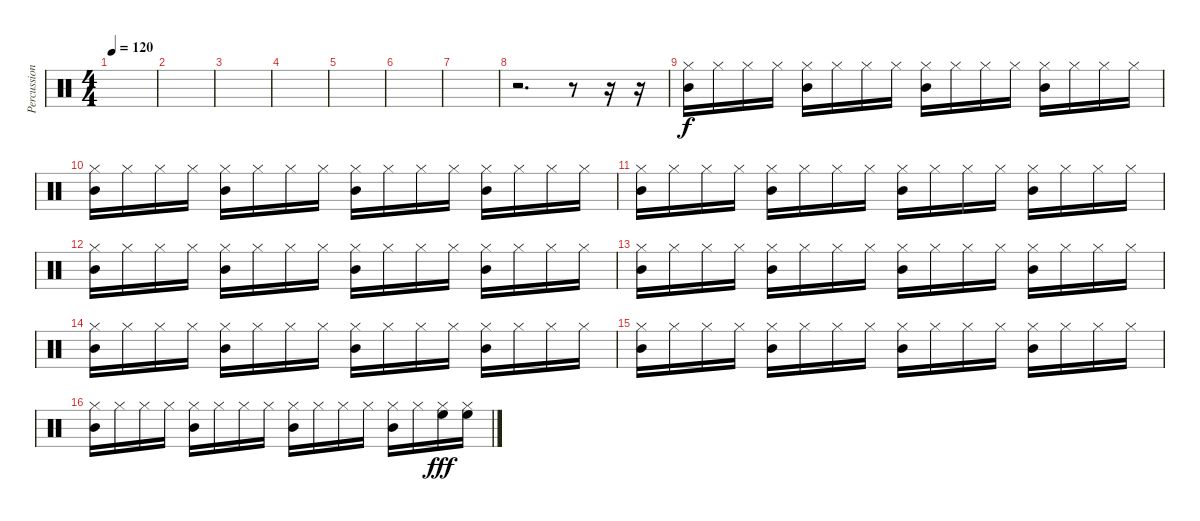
\track ("Percussion" "Percussion") {instrument percussion}
\staff {score}
\articulation defaults
\ts (4 4)
\tempo 120
\clef neutral
\ks c
|
|
|
|
|
|
|
r.2{d} r.8 r.16 r.16 |
("Hi-Hat (closed)" "Mid Tom (hit)").16 "Hi-Hat (closed)".16 "Hi-Hat (closed)".16 "Hi-Hat (closed)".16 ("Hi-Hat (closed)" "Mid Tom (hit)").16 "Hi-Hat (closed)".16 "Hi-Hat (closed)".16 "Hi-Hat (closed)".16 ("Hi-Hat (closed)" "Mid Tom (hit)").16 "Hi-Hat (closed)".16 "Hi-Hat (closed)".16 "Hi-Hat (closed)".16 ("Hi-Hat (closed)" "Mid Tom (hit)").16 "Hi-Hat (closed)".16 "Hi-Hat (closed)".16 "Hi-Hat (closed)".16 |
("Hi-Hat (closed)" "Mid Tom (hit)").16 "Hi-Hat (closed)".16 "Hi-Hat (closed)".16 "Hi-Hat (closed)".16 ("Hi-Hat (closed)" "Mid Tom (hit)").16 "Hi-Hat (closed)".16 "Hi-Hat (closed)".16 "Hi-Hat (closed)".16 ("Hi-Hat (closed)" "Mid Tom (hit)").16 "Hi-Hat (closed)".16 "Hi-Hat (closed)".16 "Hi-Hat (closed)".16 ("Hi-Hat (closed)" "Mid Tom (hit)").16 "Hi-Hat (closed)".16 "Hi-Hat (closed)".16 "Hi-Hat (closed)".16 |
("Hi-Hat (closed)" "Mid Tom (hit)").16 "Hi-Hat (closed)".16 "Hi-Hat (closed)".16 "Hi-Hat (closed)".16 ("Hi-Hat (closed)" "Mid Tom (hit)").16 "Hi-Hat (closed)".16 "Hi-Hat (closed)".16 "Hi-Hat (closed)".16 ("Hi-Hat (closed)" "Mid Tom (hit)").16 "Hi-Hat (closed)".16 "Hi-Hat (closed)".16 "Hi-Hat (closed)".16 ("Hi-Hat (closed)" "Mid Tom (hit)").16 "Hi-Hat (closed)".16 "Hi-Hat (closed)".16 "Hi-Hat (closed)".16 |
("Hi-Hat (closed)" "Mid Tom (hit)").16 "Hi-Hat (closed)".16 "Hi-Hat (closed)".16 "Hi-Hat (closed)".16 ("Hi-Hat (closed)" "Mid Tom (hit)").16 "Hi-Hat (closed)".16 "Hi-Hat (closed)".16 "Hi-Hat (closed)".16 ("Hi-Hat (closed)" "Mid Tom (hit)").16 "Hi-Hat (closed)".16 "Hi-Hat (closed)".16 "Hi-Hat (closed)".16 ("Hi-Hat (closed)" "Mid Tom (hit)").16 "Hi-Hat (closed)".16 "Hi-Hat (closed)".16 "Hi-Hat (closed)".16 |
("Hi-Hat (closed)" "Mid Tom (hit)").16 "Hi-Hat (closed)".16 "Hi-Hat (closed)".16 "Hi-Hat (closed)".16 ("Hi-Hat (closed)" "Mid Tom (hit)").16 "Hi-Hat (closed)".16 "Hi-Hat (closed)".16 "Hi-Hat (closed)".16 ("Hi-Hat (closed)" "Mid Tom (hit)").16 "Hi-Hat (closed)".16 "Hi-Hat (closed)".16 "Hi-Hat (closed)".16 ("Hi-Hat (closed)" "Mid Tom (hit)").16 "Hi-Hat (closed)".16 "Hi-Hat (closed)".16 "Hi-Hat (closed)".16 |
("Hi-Hat (closed)" "Mid Tom (hit)").16 "Hi-Hat (closed)".16 "Hi-Hat (closed)".16 "Hi-Hat (closed)".16 ("Hi-Hat (closed)" "Mid Tom (hit)").16 "Hi-Hat (closed)".16 "Hi-Hat (closed)".16 "Hi-Hat (closed)".16 ("Hi-Hat (closed)" "Mid Tom (hit)").16 "Hi-Hat (closed)".16 "Hi-Hat (closed)".16 "Hi-Hat (closed)".16 ("Hi-Hat (closed)" "Mid Tom (hit)").16 "Hi-Hat (closed)".16 "Hi-Hat (closed)".16 "Hi-Hat (closed)".16 |
("Hi-Hat (closed)" "Mid Tom (hit)").16 "Hi-Hat (closed)".16 "Hi-Hat (closed)".16 "Hi-Hat (closed)".16 ("Hi-Hat (closed)" "Mid Tom (hit)").16 "Hi-Hat (closed)".16 "Hi-Hat (closed)".16 "Hi-Hat (closed)".16 ("Hi-Hat (closed)" "Mid Tom (hit)").16 "Hi-Hat (closed)".16 "Hi-Hat (closed)".16 "Hi-Hat (closed)".16 ("Hi-Hat (closed)" "Mid Tom (hit)").16 "Hi-Hat (closed)".16 "Hi-Hat (closed)".16 "Hi-Hat (closed)".16 |
("Hi-Hat (closed)" "Mid Tom (hit)").16 "Hi-Hat (closed)".16 "Hi-Hat (closed)".16 "Hi-Hat (closed)".16 ("Hi-Hat (closed)" "Mid Tom (hit)").16 "Hi-Hat (closed)".16 "Hi-Hat (closed)".16 "Hi-Hat (closed)".16 ("Hi-Hat (closed)" "Mid Tom (hit)").16 "Hi-Hat (closed)".16 "Hi-Hat (closed)".16 "Hi-Hat (closed)".16 ("Hi-Hat (closed)" "Mid Tom (hit)").16 "Hi-Hat (closed)".16 ("Hi-Hat (closed)" "High Floor Tom (hit)").16{dy fff} ("Hi-Hat (closed)" "High Floor Tom (hit)").16
